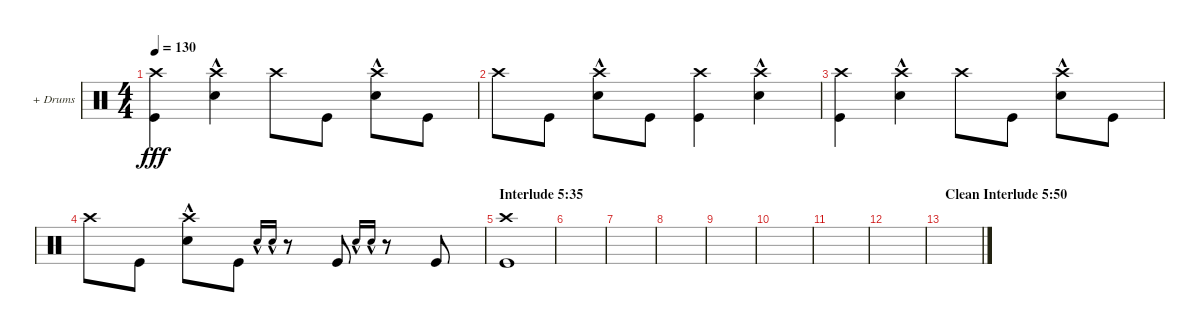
\defaultSystemsLayout 4
\bracketExtendMode groupsimilarinstruments
\firstSystemTrackNameOrientation horizontal
\otherSystemsTrackNameOrientation horizontal
\track ("+ Drums" "+ Drums") {instrument percussion}
\staff {score}
\articulation defaults
\ts (4 4)
\tempo 130
\clef neutral
\ks c
("Crash high (hit)" "Kick (hit)").4{dy fff} ("Crash high (hit)" "Snare (hit) 2"{hac}).4 "Crash high (hit)".8 "Kick (hit)".8 ("Crash high (hit)" "Snare (hit) 2"{hac}).8 "Kick (hit)".8 |
"Crash high (hit)".8 "Kick (hit)".8 ("Crash high (hit)" "Snare (hit) 2"{hac}).8 "Kick (hit)".8 ("Crash high (hit)" "Kick (hit)").4 ("Crash high (hit)" "Snare (hit) 2"{hac}).4 |
("Crash high (hit)" "Kick (hit)").4 ("Crash high (hit)" "Snare (hit) 2"{hac}).4 "Crash high (hit)".8 "Kick (hit)".8 ("Crash high (hit)" "Snare (hit) 2"{hac}).8 "Kick (hit)".8 |
"Crash high (hit)".8 "Kick (hit)".8 ("Crash high (hit)" "Snare (hit) 2"{hac}).8 "Kick (hit)".8 "Snare (hit) 2"{hac}.16{gr onbeat} "Snare (hit) 2"{hac}.16{gr onbeat} r.8 "Kick (hit)".8 "Snare (hit) 2"{hac}.16{gr onbeat} "Snare (hit) 2"{hac}.16{gr onbeat} r.8 "Kick (hit)".8 |
\section ("" "Interlude 5:35")
("Crash high (hit)" "Kick (hit)").1 |
|
|
|
|
|
|
|
\section ("" "Clean Interlude 5:50")
